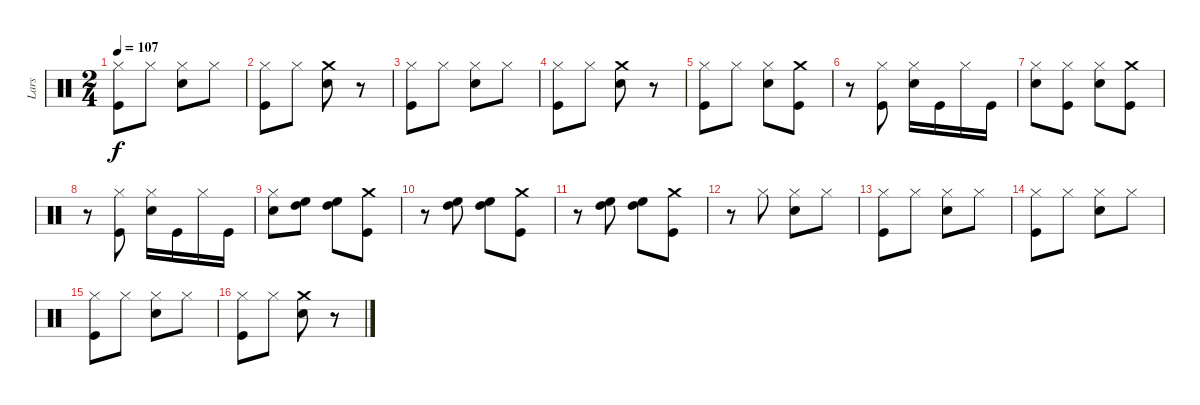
\track ("Lars" "Lars") {instrument percussion}
\staff {score}
\articulation defaults
\ts (2 4)
\tempo 107
\clef neutral
\ks c
("Kick (hit)" "Hi-Hat (closed)").8{dy f} "Hi-Hat (closed)".8 ("Snare (hit) 2" "Hi-Hat (closed)").8 "Hi-Hat (closed)".8 |
("Hi-Hat (closed)" "Kick (hit)").8 "Hi-Hat (closed)".8 ("Crash medium (hit)" "Snare (hit) 2").8 r.8 |
("Kick (hit)" "Hi-Hat (closed)").8 "Hi-Hat (closed)".8 ("Snare (hit) 2" "Hi-Hat (closed)").8 "Hi-Hat (closed)".8 |
("Hi-Hat (closed)" "Kick (hit)").8 "Hi-Hat (closed)".8 ("Crash medium (hit)" "Snare (hit) 2").8 r.8 |
("Kick (hit)" "Hi-Hat (closed)").8 "Hi-Hat (closed)".8 ("Hi-Hat (closed)" "Snare (hit) 2").8 ("Crash medium (hit)" "Kick (hit)").8 |
r.8 ("Kick (hit)" "Hi-Hat (closed)").8 ("Hi-Hat (closed)" "Snare (hit) 2").16 "Kick (hit)".16 "Hi-Hat (closed)".16 "Kick (hit)".16 |
("Snare (hit) 2" "Hi-Hat (closed)").8 ("Hi-Hat (closed)" "Kick (hit)").8 ("Hi-Hat (closed)" "Snare (hit) 2").8 ("Crash medium (hit)" "Kick (hit)").8 |
r.8 ("Kick (hit)" "Hi-Hat (closed)").8 ("Hi-Hat (closed)" "Snare (hit) 2").16 "Kick (hit)".16 "Hi-Hat (closed)".16 "Kick (hit)".16 |
("Snare (hit) 2" "Hi-Hat (closed)").8 ("High Tom (hit)" "High Floor Tom (hit)").8 ("High Tom (hit)" "High Floor Tom (hit)").8 ("Crash medium (hit)" "Kick (hit)").8 |
r.8 ("High Tom (hit)" "High Floor Tom (hit)").8 ("High Tom (hit)" "High Floor Tom (hit)").8 ("Crash medium (hit)" "Kick (hit)").8 |
r.8 ("High Tom (hit)" "High Floor Tom (hit)").8 ("High Tom (hit)" "High Floor Tom (hit)").8 ("Crash medium (hit)" "Kick (hit)").8 |
r.8 "Hi-Hat (closed)".8 ("Snare (hit) 2" "Hi-Hat (closed)").8 "Hi-Hat (closed)".8 |
("Kick (hit)" "Hi-Hat (closed)").8 "Hi-Hat (closed)".8 ("Snare (hit) 2" "Hi-Hat (closed)").8 "Hi-Hat (closed)".8 |
("Hi-Hat (closed)" "Kick (hit)").8 "Hi-Hat (closed)".8 ("Snare (hit) 2" "Hi-Hat (closed)").8 "Hi-Hat (closed)".8 |
("Kick (hit)" "Hi-Hat (closed)").8 "Hi-Hat (closed)".8 ("Snare (hit) 2" "Hi-Hat (closed)").8 "Hi-Hat (closed)".8 |
("Hi-Hat (closed)" "Kick (hit)").8 "Hi-Hat (closed)".8 ("Snare (hit) 2" "Crash medium (hit)").8 r.8
